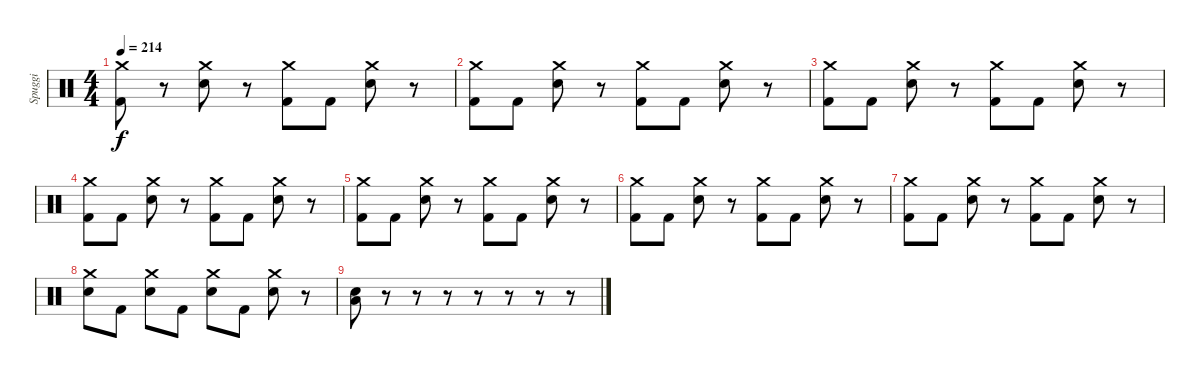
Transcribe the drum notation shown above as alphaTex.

\track ("Spuggi" "Spuggi") {instrument percussion}
\staff {score}
\articulation defaults
\ts (4 4)
\tempo 214
\clef neutral
\ks c
("Crash medium (hit)" "Kick (hit) 2").8{dy f} r.8 ("Crash medium (hit)" "Snare (hit) 2").8 r.8 ("Crash medium (hit)" "Kick (hit) 2").8 "Kick (hit) 2".8 ("Crash medium (hit)" "Snare (hit) 2").8 r.8 |
("Crash medium (hit)" "Kick (hit) 2").8 "Kick (hit) 2".8 ("Crash medium (hit)" "Snare (hit) 2").8 r.8 ("Crash medium (hit)" "Kick (hit) 2").8 "Kick (hit) 2".8 ("Crash medium (hit)" "Snare (hit) 2").8 r.8 |
("Crash medium (hit)" "Kick (hit) 2").8 "Kick (hit) 2".8 ("Crash medium (hit)" "Snare (hit) 2").8 r.8 ("Crash medium (hit)" "Kick (hit) 2").8 "Kick (hit) 2".8 ("Crash medium (hit)" "Snare (hit) 2").8 r.8 |
("Crash medium (hit)" "Kick (hit) 2").8 "Kick (hit) 2".8 ("Crash medium (hit)" "Snare (hit) 2").8 r.8 ("Crash medium (hit)" "Kick (hit) 2").8 "Kick (hit) 2".8 ("Crash medium (hit)" "Snare (hit) 2").8 r.8 |
("Crash medium (hit)" "Kick (hit) 2").8 "Kick (hit) 2".8 ("Crash medium (hit)" "Snare (hit) 2").8 r.8 ("Crash medium (hit)" "Kick (hit) 2").8 "Kick (hit) 2".8 ("Crash medium (hit)" "Snare (hit) 2").8 r.8 |
("Crash medium (hit)" "Kick (hit) 2").8 "Kick (hit) 2".8 ("Crash medium (hit)" "Snare (hit) 2").8 r.8 ("Crash medium (hit)" "Kick (hit) 2").8 "Kick (hit) 2".8 ("Crash medium (hit)" "Snare (hit) 2").8 r.8 |
("Crash medium (hit)" "Kick (hit) 2").8 "Kick (hit) 2".8 ("Crash medium (hit)" "Snare (hit) 2").8 r.8 ("Crash medium (hit)" "Kick (hit) 2").8 "Kick (hit) 2".8 ("Crash medium (hit)" "Snare (hit) 2").8 r.8 |
("Crash medium (hit)" "Snare (hit) 2").8 "Kick (hit) 2".8 ("Crash medium (hit)" "Snare (hit) 2").8 "Kick (hit) 2".8 ("Crash medium (hit)" "Snare (hit) 2").8 "Kick (hit) 2".8 ("Crash medium (hit)" "Snare (hit) 2").8 r.8 |
("Low Floor Tom (hit)" "Snare (hit) 2").8 r.8 r.8 r.8 r.8 r.8 r.8 r.8
